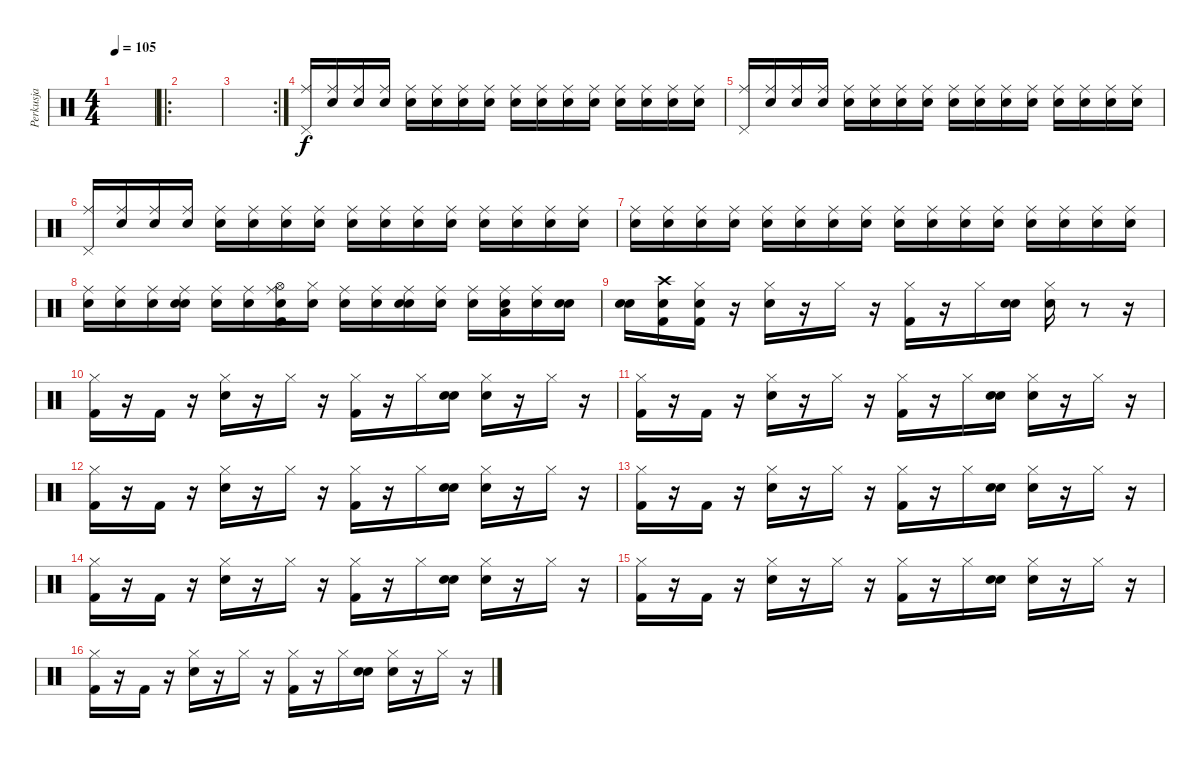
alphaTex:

\track ("Perkusja" "Perkusja") {instrument percussion}
\staff {score}
\articulation defaults
\ts (4 4)
\tempo 105
\clef neutral
\ks c
|
\ro
|
\rc 2
|
("Pedal Hi-Hat (hit)" "Ride (middle)").16 ("Snare (hit)" "Ride (middle)").16 ("Snare (hit)" "Ride (middle)").16 ("Snare (hit)" "Ride (middle)").16 ("Snare (hit)" "Ride (middle)").16 ("Snare (hit)" "Ride (middle)").16 ("Snare (hit)" "Ride (middle)").16 ("Snare (hit)" "Ride (middle)").16 ("Snare (hit)" "Ride (middle)").16 ("Snare (hit)" "Ride (middle)").16 ("Snare (hit)" "Ride (middle)").16 ("Snare (hit)" "Ride (middle)").16 ("Snare (hit)" "Ride (middle)").16 ("Snare (hit)" "Ride (middle)").16 ("Snare (hit)" "Ride (middle)").16 ("Snare (hit)" "Ride (middle)").16 |
("Pedal Hi-Hat (hit)" "Ride (middle)").16 ("Snare (hit)" "Ride (middle)").16 ("Snare (hit)" "Ride (middle)").16 ("Snare (hit)" "Ride (middle)").16 ("Snare (hit)" "Ride (middle)").16 ("Snare (hit)" "Ride (middle)").16 ("Snare (hit)" "Ride (middle)").16 ("Snare (hit)" "Ride (middle)").16 ("Snare (hit)" "Ride (middle)").16 ("Snare (hit)" "Ride (middle)").16 ("Snare (hit)" "Ride (middle)").16 ("Snare (hit)" "Ride (middle)").16 ("Snare (hit)" "Ride (middle)").16 ("Snare (hit)" "Ride (middle)").16 ("Snare (hit)" "Ride (middle)").16 ("Snare (hit)" "Ride (middle)").16 |
("Pedal Hi-Hat (hit)" "Ride (middle)").16 ("Snare (hit)" "Ride (middle)").16 ("Snare (hit)" "Ride (middle)").16 ("Snare (hit)" "Ride (middle)").16 ("Snare (hit)" "Ride (middle)").16 ("Snare (hit)" "Ride (middle)").16 ("Snare (hit)" "Ride (middle)").16 ("Snare (hit)" "Ride (middle)").16 ("Snare (hit)" "Ride (middle)").16 ("Snare (hit)" "Ride (middle)").16 ("Snare (hit)" "Ride (middle)").16 ("Snare (hit)" "Ride (middle)").16 ("Snare (hit)" "Ride (middle)").16 ("Snare (hit)" "Ride (middle)").16 ("Snare (hit)" "Ride (middle)").16 ("Snare (hit)" "Ride (middle)").16 |
("Snare (hit)" "Ride (middle)").16 ("Snare (hit)" "Ride (middle)").16 ("Snare (hit)" "Ride (middle)").16 ("Snare (hit)" "Ride (middle)").16 ("Snare (hit)" "Ride (middle)").16 ("Snare (hit)" "Ride (middle)").16 ("Snare (hit)" "Ride (middle)").16 ("Snare (hit)" "Ride (middle)").16 ("Snare (hit)" "Ride (middle)").16 ("Snare (hit)" "Ride (middle)").16 ("Snare (hit)" "Ride (middle)").16 ("Snare (hit)" "Ride (middle)").16 ("Snare (hit)" "Ride (middle)").16 ("Snare (hit)" "Ride (middle)").16 ("Snare (hit)" "Ride (middle)").16 ("Snare (hit)" "Ride (middle)").16 |
("Snare (hit)" "Ride (middle)").16 ("Snare (hit)" "Ride (middle)").16 ("Snare (hit)" "Ride (middle)").16 ("Snare (hit)" "Snare (hit) 2" "Ride (middle)").16 ("Snare (hit)" "Ride (middle)").16 ("Snare (hit)" "Ride (middle)").16 ("Snare (hit)" "Kick (hit) 2" "Hi-Hat (open)" "Ride (middle)").16 ("Snare (hit)" "Hi-Hat (closed)").16 ("Snare (hit)" "Ride (middle)").16 ("Snare (hit)" "Ride (middle)").16 ("Snare (hit)" "Snare (hit) 2" "Ride (middle)").16 ("Snare (hit)" "Ride (middle)").16 ("Snare (hit)" "Ride (middle)").16 ("Snare (hit)" "Low Tom (hit)" "Ride (middle)").16 ("Snare (hit)" "Ride (middle)").16 ("Snare (hit)" "Snare (hit) 2").16 |
("Snare (hit)" "Snare (hit) 2").16 ("Snare (hit)" "Kick (hit) 2" "Crash high (hit)").16 ("Snare (hit)" "Kick (hit) 2" "Hi-Hat (closed)").16 r.16 ("Snare (hit) 2" "Hi-Hat (closed)").16 r.16 "Hi-Hat (closed)".16 r.16 ("Kick (hit) 2" "Hi-Hat (closed)").16 r.16 "Hi-Hat (closed)".16 ("Snare (hit)" "Snare (hit) 2").16 ("Snare (hit)" "Hi-Hat (closed)").16 r.8 r.16 |
("Kick (hit) 2" "Hi-Hat (closed)").16 r.16 "Kick (hit) 2".16 r.16 ("Snare (hit) 2" "Hi-Hat (closed)").16 r.16 "Hi-Hat (closed)".16 r.16 ("Kick (hit) 2" "Hi-Hat (closed)").16 r.16 "Hi-Hat (closed)".16 ("Snare (hit)" "Snare (hit) 2").16 ("Snare (hit)" "Hi-Hat (closed)").16 r.16 "Hi-Hat (closed)".16 r.16 |
("Kick (hit) 2" "Hi-Hat (closed)").16 r.16 "Kick (hit) 2".16 r.16 ("Snare (hit) 2" "Hi-Hat (closed)").16 r.16 "Hi-Hat (closed)".16 r.16 ("Kick (hit) 2" "Hi-Hat (closed)").16 r.16 "Hi-Hat (closed)".16 ("Snare (hit)" "Snare (hit) 2").16 ("Snare (hit)" "Hi-Hat (closed)").16 r.16 "Hi-Hat (closed)".16 r.16 |
("Kick (hit) 2" "Hi-Hat (closed)").16 r.16 "Kick (hit) 2".16 r.16 ("Snare (hit) 2" "Hi-Hat (closed)").16 r.16 "Hi-Hat (closed)".16 r.16 ("Kick (hit) 2" "Hi-Hat (closed)").16 r.16 "Hi-Hat (closed)".16 ("Snare (hit)" "Snare (hit) 2").16 ("Snare (hit)" "Hi-Hat (closed)").16 r.16 "Hi-Hat (closed)".16 r.16 |
("Kick (hit) 2" "Hi-Hat (closed)").16 r.16 "Kick (hit) 2".16 r.16 ("Snare (hit) 2" "Hi-Hat (closed)").16 r.16 "Hi-Hat (closed)".16 r.16 ("Kick (hit) 2" "Hi-Hat (closed)").16 r.16 "Hi-Hat (closed)".16 ("Snare (hit)" "Snare (hit) 2").16 ("Snare (hit)" "Hi-Hat (closed)").16 r.16 "Hi-Hat (closed)".16 r.16 |
("Kick (hit) 2" "Hi-Hat (closed)").16 r.16 "Kick (hit) 2".16 r.16 ("Snare (hit) 2" "Hi-Hat (closed)").16 r.16 "Hi-Hat (closed)".16 r.16 ("Kick (hit) 2" "Hi-Hat (closed)").16 r.16 "Hi-Hat (closed)".16 ("Snare (hit)" "Snare (hit) 2").16 ("Snare (hit)" "Hi-Hat (closed)").16 r.16 "Hi-Hat (closed)".16 r.16 |
("Kick (hit) 2" "Hi-Hat (closed)").16 r.16 "Kick (hit) 2".16 r.16 ("Snare (hit) 2" "Hi-Hat (closed)").16 r.16 "Hi-Hat (closed)".16 r.16 ("Kick (hit) 2" "Hi-Hat (closed)").16 r.16 "Hi-Hat (closed)".16 ("Snare (hit)" "Snare (hit) 2").16 ("Snare (hit)" "Hi-Hat (closed)").16 r.16 "Hi-Hat (closed)".16 r.16 |
("Kick (hit) 2" "Hi-Hat (closed)").16 r.16 "Kick (hit) 2".16 r.16 ("Snare (hit) 2" "Hi-Hat (closed)").16 r.16 "Hi-Hat (closed)".16 r.16 ("Kick (hit) 2" "Hi-Hat (closed)").16 r.16 "Hi-Hat (closed)".16 ("Snare (hit)" "Snare (hit) 2").16 ("Snare (hit)" "Hi-Hat (closed)").16 r.16 "Hi-Hat (closed)".16 r.16
